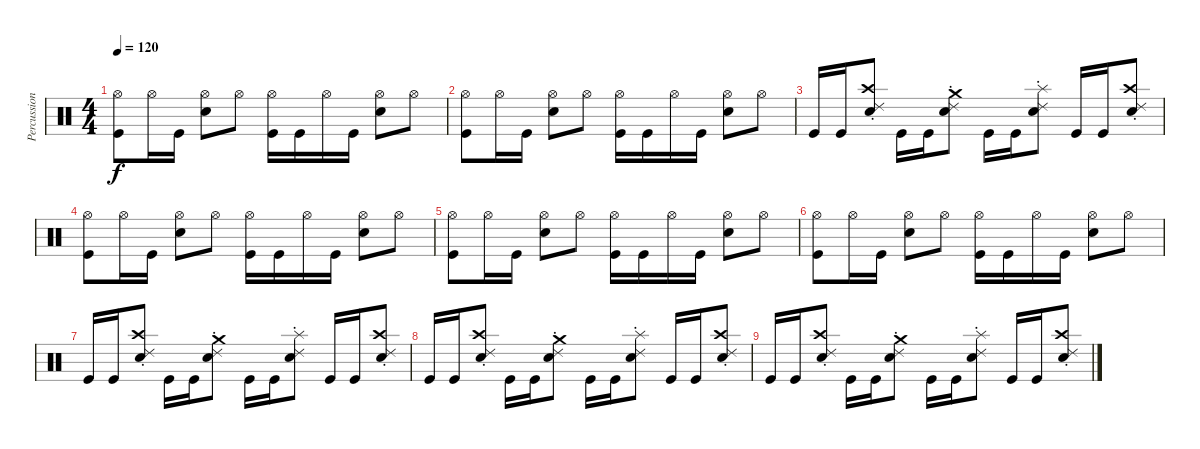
\track ("Percussion" "Percussion") {instrument percussion}
\staff {score}
\articulation defaults
\ts (4 4)
\tempo 120
\clef neutral
\ks c
("Hi-Hat (open)" "Kick (hit)").8{dy f} "Hi-Hat (open)".16 "Kick (hit)".16 ("Hi-Hat (open)" "Snare (hit) 2").8 "Hi-Hat (open)".8 ("Hi-Hat (open)" "Kick (hit)").16 "Kick (hit)".16 "Hi-Hat (open)".16 "Kick (hit)".16 ("Hi-Hat (open)" "Snare (hit) 2").8 "Hi-Hat (open)".8 |
("Hi-Hat (open)" "Kick (hit)").8 "Hi-Hat (open)".16 "Kick (hit)".16 ("Hi-Hat (open)" "Snare (hit) 2").8 "Hi-Hat (open)".8 ("Hi-Hat (open)" "Kick (hit)").16 "Kick (hit)".16 "Hi-Hat (open)".16 "Kick (hit)".16 ("Hi-Hat (open)" "Snare (hit) 2").8 "Hi-Hat (open)".8 |
"Kick (hit)".16 "Kick (hit)".16 ("Crash high (hit)" "Snare (hit) 2" "Ride (choke) 2").8 "Kick (hit)".16 "Kick (hit)".16 ("Crash medium (hit)" "Snare (hit) 2" "Ride (choke) 2").8 "Kick (hit)".16 "Kick (hit)".16 ("Splash (hit)" "Snare (hit) 2" "Ride (choke) 2").8 "Kick (hit)".16 "Kick (hit)".16 ("Crash high (hit)" "Snare (hit) 2" "Ride (choke) 2").8 |
("Hi-Hat (open)" "Kick (hit)").8 "Hi-Hat (open)".16 "Kick (hit)".16 ("Hi-Hat (open)" "Snare (hit) 2").8 "Hi-Hat (open)".8 ("Hi-Hat (open)" "Kick (hit)").16 "Kick (hit)".16 "Hi-Hat (open)".16 "Kick (hit)".16 ("Hi-Hat (open)" "Snare (hit) 2").8 "Hi-Hat (open)".8 |
("Hi-Hat (open)" "Kick (hit)").8 "Hi-Hat (open)".16 "Kick (hit)".16 ("Hi-Hat (open)" "Snare (hit) 2").8 "Hi-Hat (open)".8 ("Hi-Hat (open)" "Kick (hit)").16 "Kick (hit)".16 "Hi-Hat (open)".16 "Kick (hit)".16 ("Hi-Hat (open)" "Snare (hit) 2").8 "Hi-Hat (open)".8 |
("Hi-Hat (open)" "Kick (hit)").8 "Hi-Hat (open)".16 "Kick (hit)".16 ("Hi-Hat (open)" "Snare (hit) 2").8 "Hi-Hat (open)".8 ("Hi-Hat (open)" "Kick (hit)").16 "Kick (hit)".16 "Hi-Hat (open)".16 "Kick (hit)".16 ("Hi-Hat (open)" "Snare (hit) 2").8 "Hi-Hat (open)".8 |
"Kick (hit)".16 "Kick (hit)".16 ("Crash high (hit)" "Snare (hit) 2" "Ride (choke) 2").8 "Kick (hit)".16 "Kick (hit)".16 ("Crash medium (hit)" "Snare (hit) 2" "Ride (choke) 2").8 "Kick (hit)".16 "Kick (hit)".16 ("Splash (hit)" "Snare (hit) 2" "Ride (choke) 2").8 "Kick (hit)".16 "Kick (hit)".16 ("Crash high (hit)" "Snare (hit) 2" "Ride (choke) 2").8 |
"Kick (hit)".16 "Kick (hit)".16 ("Crash high (hit)" "Snare (hit) 2" "Ride (choke) 2").8 "Kick (hit)".16 "Kick (hit)".16 ("Crash medium (hit)" "Snare (hit) 2" "Ride (choke) 2").8 "Kick (hit)".16 "Kick (hit)".16 ("Splash (hit)" "Snare (hit) 2" "Ride (choke) 2").8 "Kick (hit)".16 "Kick (hit)".16 ("Crash high (hit)" "Snare (hit) 2" "Ride (choke) 2").8 |
"Kick (hit)".16{volume 0} "Kick (hit)".16 ("Crash high (hit)" "Snare (hit) 2" "Ride (choke) 2").8 "Kick (hit)".16 "Kick (hit)".16 ("Crash medium (hit)" "Snare (hit) 2" "Ride (choke) 2").8 "Kick (hit)".16 "Kick (hit)".16 ("Splash (hit)" "Snare (hit) 2" "Ride (choke) 2").8 "Kick (hit)".16 "Kick (hit)".16 ("Crash high (hit)" "Snare (hit) 2" "Ride (choke) 2").8
